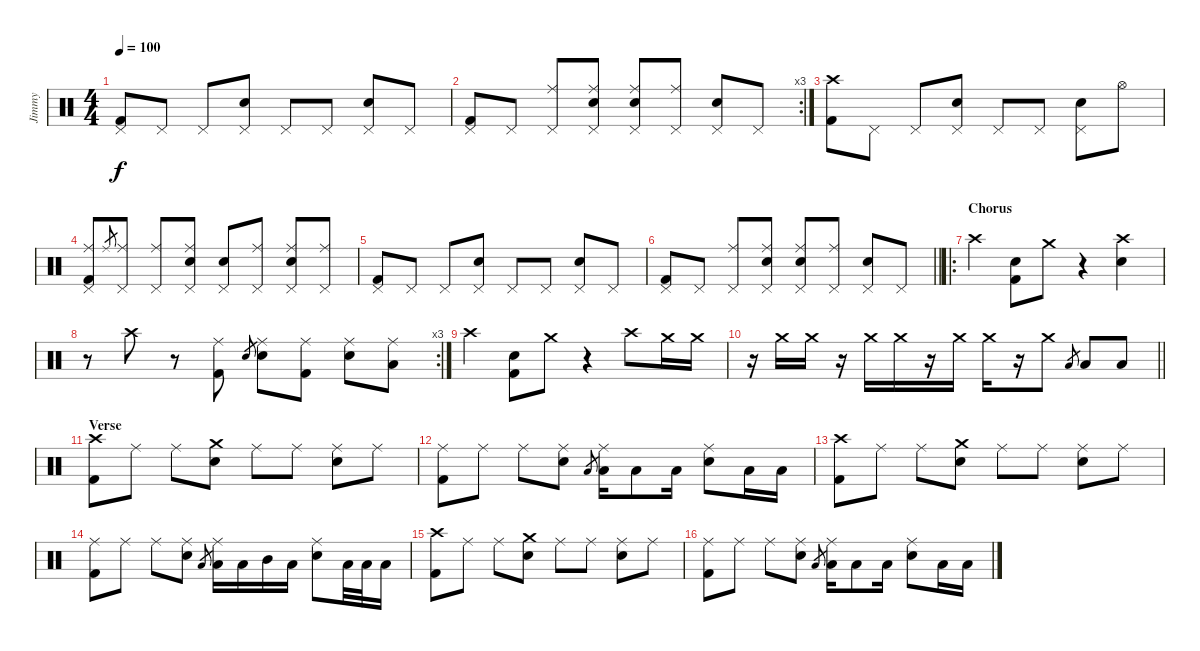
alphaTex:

\track ("Jimmy" "Jimmy") {instrument percussion}
\staff {score}
\articulation defaults
\ts (4 4)
\tempo 100
\clef neutral
\ks c
("Pedal Hi-Hat (hit)" "Kick (hit) 2").8{dy f} "Pedal Hi-Hat (hit)".8 "Pedal Hi-Hat (hit)".8 ("Pedal Hi-Hat (hit)" "Snare (hit) 2").8 "Pedal Hi-Hat (hit)".8 "Pedal Hi-Hat (hit)".8 ("Pedal Hi-Hat (hit)" "Snare (hit) 2").8 "Pedal Hi-Hat (hit)".8 |
\rc 3
("Pedal Hi-Hat (hit)" "Kick (hit) 2").8 "Pedal Hi-Hat (hit)".8 ("Ride (middle)" "Pedal Hi-Hat (hit)").8 ("Ride (middle)" "Pedal Hi-Hat (hit)" "Snare (hit) 2").8 ("Ride (middle)" "Pedal Hi-Hat (hit)" "Snare (hit) 2").8 ("Ride (middle)" "Pedal Hi-Hat (hit)").8 ("Pedal Hi-Hat (hit)" "Snare (hit) 2").8 "Pedal Hi-Hat (hit)".8 |
("Crash high (hit)" "Kick (hit) 2").8 "Pedal Hi-Hat (hit)".8 "Pedal Hi-Hat (hit)".8 ("Pedal Hi-Hat (hit)" "Snare (hit) 2").8 "Pedal Hi-Hat (hit)".8 "Pedal Hi-Hat (hit)".8 ("Pedal Hi-Hat (hit)" "Snare (hit) 2").8 "Hi-Hat (open)".8 |
("Ride (middle)" "Pedal Hi-Hat (hit)" "Kick (hit) 2").8 "Ride (middle)".8{gr} ("Ride (middle)" "Pedal Hi-Hat (hit)").8 ("Ride (middle)" "Pedal Hi-Hat (hit)").8 ("Ride (middle)" "Pedal Hi-Hat (hit)" "Snare (hit) 2").8 ("Pedal Hi-Hat (hit)" "Snare (hit) 2").8 ("Ride (middle)" "Pedal Hi-Hat (hit)").8 ("Ride (middle)" "Pedal Hi-Hat (hit)" "Snare (hit) 2").8 ("Ride (middle)" "Pedal Hi-Hat (hit)").8 |
("Pedal Hi-Hat (hit)" "Kick (hit) 2").8 "Pedal Hi-Hat (hit)".8 "Pedal Hi-Hat (hit)".8 ("Pedal Hi-Hat (hit)" "Snare (hit) 2").8 "Pedal Hi-Hat (hit)".8 "Pedal Hi-Hat (hit)".8 ("Pedal Hi-Hat (hit)" "Snare (hit) 2").8 "Pedal Hi-Hat (hit)".8 |
\barLineRight lightlight
("Pedal Hi-Hat (hit)" "Kick (hit) 2").8 "Pedal Hi-Hat (hit)".8 ("Ride (middle)" "Pedal Hi-Hat (hit)").8 ("Ride (middle)" "Pedal Hi-Hat (hit)" "Snare (hit) 2").8 ("Ride (middle)" "Pedal Hi-Hat (hit)" "Snare (hit) 2").8 ("Ride (middle)" "Pedal Hi-Hat (hit)").8 ("Pedal Hi-Hat (hit)" "Snare (hit) 2").8 "Pedal Hi-Hat (hit)".8 |
\ro
\section ("" "Chorus")
"Crash high (hit)".4 ("Snare (hit) 2" "Kick (hit) 2").8 "Crash medium (hit)".8 r.4 ("Crash high (hit)" "Snare (hit) 2").4 |
\rc 3
r.8 "Crash high (hit)".8 r.8 ("Ride (middle)" "Kick (hit) 2").8 "Snare (hit) 2".8{gr} ("Ride (middle)" "Snare (hit) 2").8 ("Ride (middle)" "Kick (hit) 2").8 ("Ride (middle)" "Snare (hit) 2").8 ("Ride (middle)" "Low Tom (hit)").8 |
"Crash high (hit)".4 ("Snare (hit) 2" "Kick (hit) 2").8 "Crash medium (hit)".8 r.4 "Crash high (hit)".8 "Crash medium (hit)".16 "Crash medium (hit)".16 |
\barLineRight lightlight
r.16 "Crash medium (hit)".16 "Crash medium (hit)".16 r.16 "Crash medium (hit)".16 "Crash medium (hit)".16 r.16 "Crash medium (hit)".16 "Crash medium (hit)".16 r.16 "Crash medium (hit)".8 "Low Tom (hit)".8{gr} "Low Tom (hit)".8 "Low Floor Tom (hit)".8 |
\section ("" "Verse")
("Crash high (hit)" "Kick (hit) 2").8 "Ride (middle)".8 "Ride (middle)".8 ("Crash medium (hit)" "Snare (hit) 2").8 "Ride (middle)".8 "Ride (middle)".8 ("Ride (middle)" "Snare (hit) 2").8 "Ride (middle)".8 |
("Ride (middle)" "Kick (hit) 2").8 "Ride (middle)".8 "Ride (middle)".8 ("Ride (middle)" "Snare (hit) 2").8 "Low Tom (hit)".8{gr} ("Ride (middle)" "Low Tom (hit)").16 "Low Tom (hit)".8 "Low Tom (hit)".16 ("Ride (middle)" "Snare (hit) 2").8 "Low Floor Tom (hit)".16 "Low Floor Tom (hit)".16 |
("Crash high (hit)" "Kick (hit) 2").8 "Ride (middle)".8 "Ride (middle)".8 ("Crash medium (hit)" "Snare (hit) 2").8 "Ride (middle)".8 "Ride (middle)".8 ("Ride (middle)" "Snare (hit) 2").8 "Ride (middle)".8 |
("Ride (middle)" "Kick (hit) 2").8 "Ride (middle)".8 "Ride (middle)".8 ("Ride (middle)" "Snare (hit) 2").8 "Low Tom (hit)".8{gr} ("Ride (middle)" "Low Tom (hit)").16 "Low Tom (hit)".16 "Mid Tom (hit)".16 "Low Tom (hit)".16 ("Ride (middle)" "Snare (hit) 2").8 "Low Floor Tom (hit)".32 "Low Floor Tom (hit)".32 "Low Floor Tom (hit)".16 |
("Crash high (hit)" "Kick (hit) 2").8 "Ride (middle)".8 "Ride (middle)".8 ("Crash medium (hit)" "Snare (hit) 2").8 "Ride (middle)".8 "Ride (middle)".8 ("Ride (middle)" "Snare (hit) 2").8 "Ride (middle)".8 |
("Ride (middle)" "Kick (hit) 2").8 "Ride (middle)".8 "Ride (middle)".8 ("Ride (middle)" "Snare (hit) 2").8 "Low Tom (hit)".8{gr} ("Ride (middle)" "Low Tom (hit)").16 "Low Tom (hit)".8 "Low Tom (hit)".16 ("Ride (middle)" "Snare (hit) 2").8 "Low Floor Tom (hit)".16 "Low Floor Tom (hit)".16
